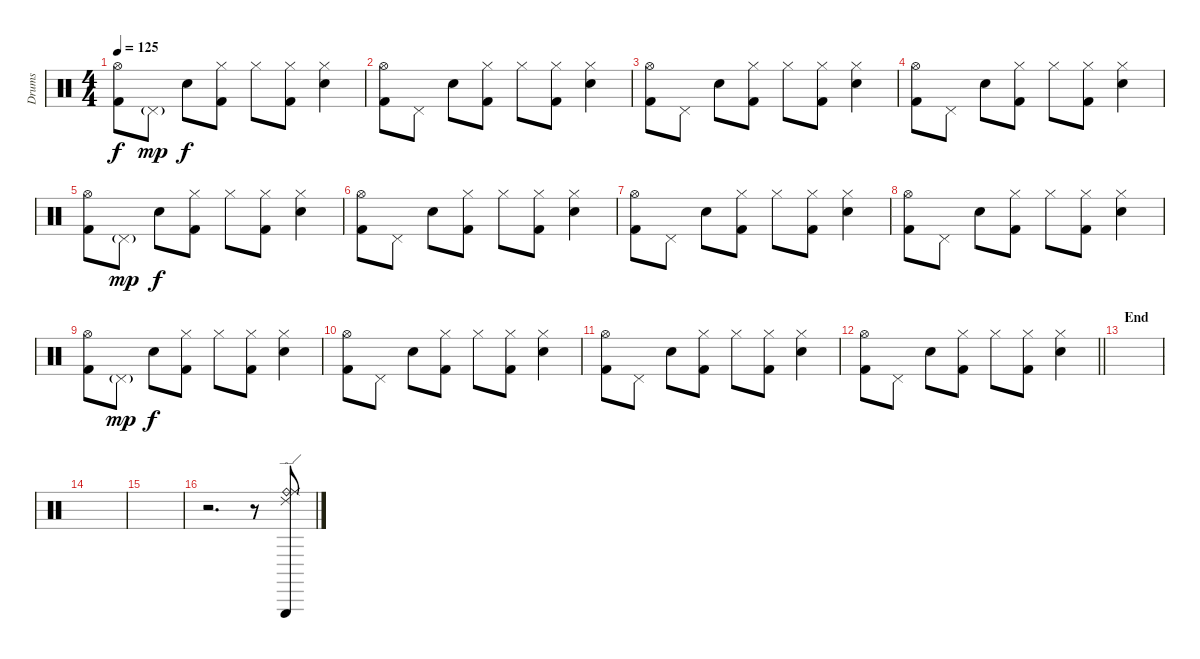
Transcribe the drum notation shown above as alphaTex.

\track ("Drums" "Drums") {instrument percussion}
\staff {score}
\articulation defaults
\ts (4 4)
\tempo 125
\clef neutral
\ks c
("Hi-Hat (open)" "Kick (hit) 2").8{dy f} "Pedal Hi-Hat (hit)"{g}.8{dy mp} "Hand Clap (hit)".8{dy f} ("Hi-Hat (closed)" "Kick (hit) 2").8 "Hi-Hat (closed)".8 ("Hi-Hat (closed)" "Kick (hit) 2").8 ("Hi-Hat (closed)" "Hand Clap (hit)").4 |
("Hi-Hat (open)" "Kick (hit) 2").8 "Pedal Hi-Hat (hit)".8 "Hand Clap (hit)".8 ("Hi-Hat (closed)" "Kick (hit) 2").8 "Hi-Hat (closed)".8 ("Hi-Hat (closed)" "Kick (hit) 2").8 ("Hi-Hat (closed)" "Hand Clap (hit)").4 |
("Hi-Hat (open)" "Kick (hit) 2").8 "Pedal Hi-Hat (hit)".8 "Hand Clap (hit)".8 ("Hi-Hat (closed)" "Kick (hit) 2").8 "Hi-Hat (closed)".8 ("Hi-Hat (closed)" "Kick (hit) 2").8 ("Hi-Hat (closed)" "Hand Clap (hit)").4 |
("Hi-Hat (open)" "Kick (hit) 2").8 "Pedal Hi-Hat (hit)".8 "Hand Clap (hit)".8 ("Hi-Hat (closed)" "Kick (hit) 2").8 "Hi-Hat (closed)".8 ("Hi-Hat (closed)" "Kick (hit) 2").8 ("Hi-Hat (closed)" "Hand Clap (hit)").4 |
("Hi-Hat (open)" "Kick (hit) 2").8 "Pedal Hi-Hat (hit)"{g}.8{dy mp} "Hand Clap (hit)".8{dy f} ("Hi-Hat (closed)" "Kick (hit) 2").8 "Hi-Hat (closed)".8 ("Hi-Hat (closed)" "Kick (hit) 2").8 ("Hi-Hat (closed)" "Hand Clap (hit)").4 |
("Hi-Hat (open)" "Kick (hit) 2").8 "Pedal Hi-Hat (hit)".8 "Hand Clap (hit)".8 ("Hi-Hat (closed)" "Kick (hit) 2").8 "Hi-Hat (closed)".8 ("Hi-Hat (closed)" "Kick (hit) 2").8 ("Hi-Hat (closed)" "Hand Clap (hit)").4 |
("Hi-Hat (open)" "Kick (hit) 2").8 "Pedal Hi-Hat (hit)".8 "Hand Clap (hit)".8 ("Hi-Hat (closed)" "Kick (hit) 2").8 "Hi-Hat (closed)".8 ("Hi-Hat (closed)" "Kick (hit) 2").8 ("Hi-Hat (closed)" "Hand Clap (hit)").4 |
("Hi-Hat (open)" "Kick (hit) 2").8 "Pedal Hi-Hat (hit)".8 "Hand Clap (hit)".8 ("Hi-Hat (closed)" "Kick (hit) 2").8 "Hi-Hat (closed)".8 ("Hi-Hat (closed)" "Kick (hit) 2").8 ("Hi-Hat (closed)" "Hand Clap (hit)").4 |
("Hi-Hat (open)" "Kick (hit) 2").8 "Pedal Hi-Hat (hit)"{g}.8{dy mp} "Hand Clap (hit)".8{dy f} ("Hi-Hat (closed)" "Kick (hit) 2").8 "Hi-Hat (closed)".8 ("Hi-Hat (closed)" "Kick (hit) 2").8 ("Hi-Hat (closed)" "Hand Clap (hit)").4 |
("Hi-Hat (open)" "Kick (hit) 2").8 "Pedal Hi-Hat (hit)".8 "Hand Clap (hit)".8 ("Hi-Hat (closed)" "Kick (hit) 2").8 "Hi-Hat (closed)".8 ("Hi-Hat (closed)" "Kick (hit) 2").8 ("Hi-Hat (closed)" "Hand Clap (hit)").4 |
("Hi-Hat (open)" "Kick (hit) 2").8 "Pedal Hi-Hat (hit)".8 "Hand Clap (hit)".8 ("Hi-Hat (closed)" "Kick (hit) 2").8 "Hi-Hat (closed)".8 ("Hi-Hat (closed)" "Kick (hit) 2").8 ("Hi-Hat (closed)" "Hand Clap (hit)").4 |
\barLineRight lightlight
("Hi-Hat (open)" "Kick (hit) 2").8 "Pedal Hi-Hat (hit)".8 "Hand Clap (hit)".8 ("Hi-Hat (closed)" "Kick (hit) 2").8 "Hi-Hat (closed)".8 ("Hi-Hat (closed)" "Kick (hit) 2").8 ("Hi-Hat (closed)" "Hand Clap (hit)").4 |
\section ("" "End")
|
|
|
r.2{d} r.8 ("Triangle (hit)" "Ride (bell)" "Ride (middle)" "Ride (edge) 2").8
